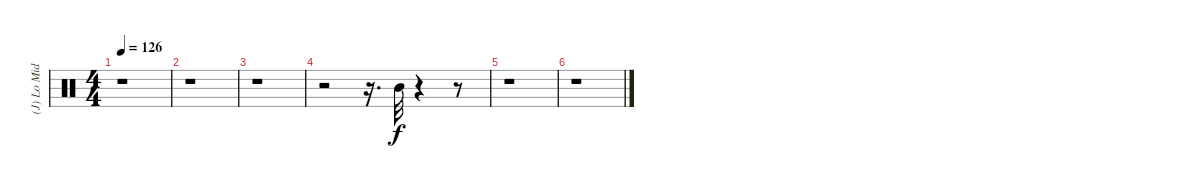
\track ("(J) Lo Mid Tom" "(J) Lo Mid") {instrument percussion}
\staff {score}
\articulation defaults
\ts (4 4)
\tempo 126
\clef neutral
\ks c
r.1{dy f} |
r.1 |
r.1 |
r.2 r.16{d} "Mid Tom (hit)".32 r.4 r.8 |
r.1 |
r.1
